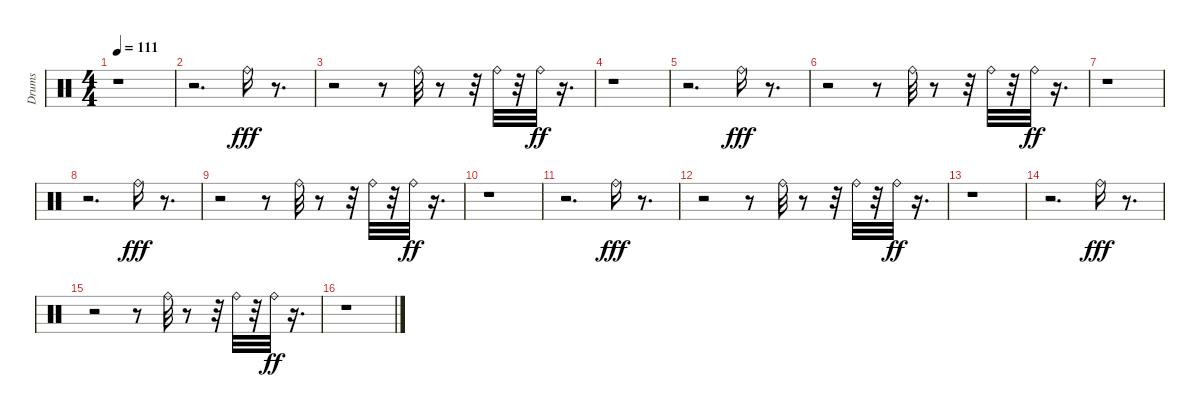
\track ("Drums" "Drums") {instrument percussion}
\staff {score}
\articulation defaults
\ts (4 4)
\tempo 111
\clef neutral
\ks c
r.1{dy ff} |
r.2{d} "Ride (bell)".16{dy fff} r.8{d} |
r.2 r.8 "Ride (bell)".32 r.8 r.32 "Ride (bell)".32 r.32 "Ride (bell)".32{dy ff} r.16{d} |
r.1 |
r.2{d} "Ride (bell)".16{dy fff} r.8{d} |
r.2 r.8 "Ride (bell)".32 r.8 r.32 "Ride (bell)".32 r.32 "Ride (bell)".32{dy ff} r.16{d} |
r.1 |
r.2{d} "Ride (bell)".16{dy fff} r.8{d} |
r.2 r.8 "Ride (bell)".32 r.8 r.32 "Ride (bell)".32 r.32 "Ride (bell)".32{dy ff} r.16{d} |
r.1 |
r.2{d} "Ride (bell)".16{dy fff} r.8{d} |
r.2 r.8 "Ride (bell)".32 r.8 r.32 "Ride (bell)".32 r.32 "Ride (bell)".32{dy ff} r.16{d} |
r.1 |
r.2{d} "Ride (bell)".16{dy fff} r.8{d} |
r.2 r.8 "Ride (bell)".32 r.8 r.32 "Ride (bell)".32 r.32 "Ride (bell)".32{dy ff} r.16{d} |
r.1
